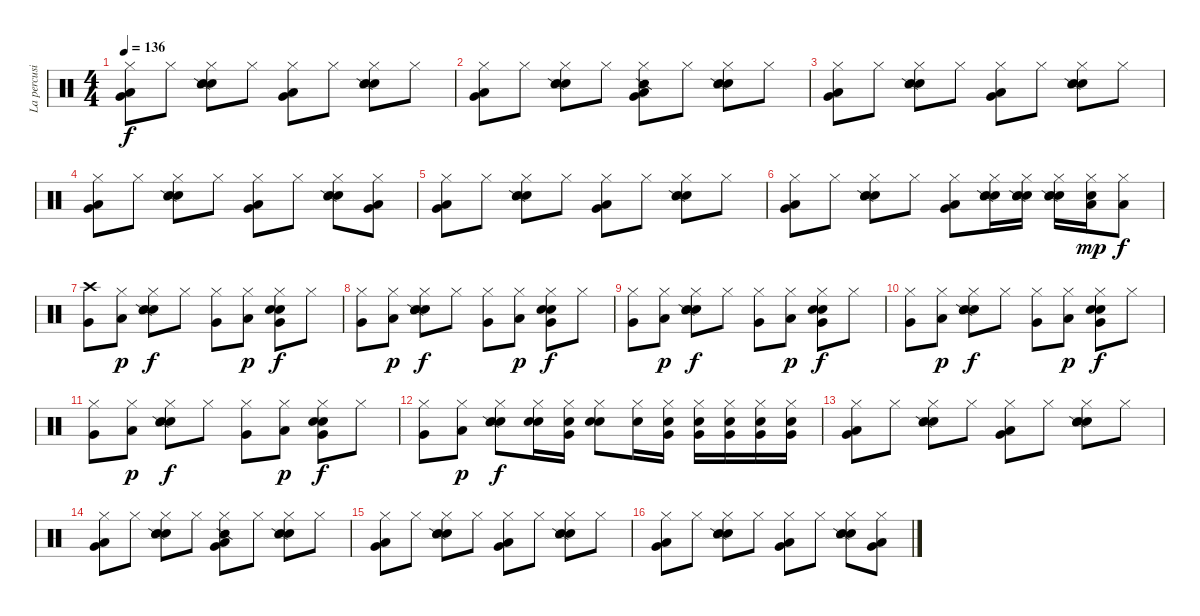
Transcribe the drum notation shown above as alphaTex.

\track ("La percusión" "La percusi") {instrument percussion}
\staff {score}
\articulation defaults
\ts (4 4)
\tempo 136
\clef neutral
\ks c
("Hi-Hat (closed)" "Low Floor Tom (hit)" "Very Low Tom (hit)").8{dy f} "Hi-Hat (closed)".8 ("Hi-Hat (closed)" "Snare (hit) 2" "Snare (hit) 2" "Snare (side stick) 2").8 "Hi-Hat (closed)".8 ("Hi-Hat (closed)" "Low Floor Tom (hit)" "Very Low Tom (hit)").8 "Hi-Hat (closed)".8 ("Hi-Hat (closed)" "Snare (hit) 2" "Snare (hit) 2" "Snare (side stick) 2").8 "Hi-Hat (closed)".8 |
("Hi-Hat (closed)" "Low Floor Tom (hit)" "Very Low Tom (hit)").8 "Hi-Hat (closed)".8 ("Hi-Hat (closed)" "Snare (hit) 2" "Snare (hit) 2" "Snare (side stick) 2").8 "Hi-Hat (closed)".8 ("Hi-Hat (closed)" "Low Floor Tom (hit)" "Very Low Tom (hit)" "Snare (side stick) 2").8 "Hi-Hat (closed)".8 ("Hi-Hat (closed)" "Snare (hit) 2" "Snare (hit) 2" "Snare (side stick) 2").8 "Hi-Hat (closed)".8 |
("Hi-Hat (closed)" "Low Floor Tom (hit)" "Very Low Tom (hit)").8 "Hi-Hat (closed)".8 ("Hi-Hat (closed)" "Snare (hit) 2" "Snare (hit) 2" "Snare (side stick) 2").8 "Hi-Hat (closed)".8 ("Hi-Hat (closed)" "Low Floor Tom (hit)" "Very Low Tom (hit)").8 "Hi-Hat (closed)".8 ("Hi-Hat (closed)" "Snare (hit) 2" "Snare (hit) 2" "Snare (side stick) 2").8 "Hi-Hat (closed)".8 |
("Hi-Hat (closed)" "Low Floor Tom (hit)" "Very Low Tom (hit)").8 "Hi-Hat (closed)".8 ("Hi-Hat (closed)" "Snare (hit) 2" "Snare (hit) 2" "Snare (side stick) 2").8 "Hi-Hat (closed)".8 ("Hi-Hat (closed)" "Low Floor Tom (hit)" "Very Low Tom (hit)").8 "Hi-Hat (closed)".8 ("Hi-Hat (closed)" "Snare (hit) 2" "Snare (hit) 2" "Snare (side stick) 2").8 ("Hi-Hat (closed)" "Low Floor Tom (hit)" "Very Low Tom (hit)").8 |
("Hi-Hat (closed)" "Low Floor Tom (hit)" "Very Low Tom (hit)").8 "Hi-Hat (closed)".8 ("Hi-Hat (closed)" "Snare (hit) 2" "Snare (hit) 2" "Snare (side stick) 2").8 "Hi-Hat (closed)".8 ("Hi-Hat (closed)" "Low Floor Tom (hit)" "Very Low Tom (hit)").8 "Hi-Hat (closed)".8 ("Hi-Hat (closed)" "Snare (hit) 2" "Snare (hit) 2" "Snare (side stick) 2").8 "Hi-Hat (closed)".8 |
("Hi-Hat (closed)" "Low Floor Tom (hit)" "Very Low Tom (hit)").8 "Hi-Hat (closed)".8 ("Hi-Hat (closed)" "Snare (hit) 2" "Snare (hit) 2" "Snare (side stick) 2").8 "Hi-Hat (closed)".8 ("Hi-Hat (closed)" "Low Floor Tom (hit)" "Very Low Tom (hit)").8 ("Hi-Hat (closed)" "Snare (hit) 2" "Snare (hit) 2" "Snare (side stick) 2").16 ("Hi-Hat (closed)" "Snare (hit) 2" "Snare (hit) 2" "Snare (side stick) 2").16 ("Hi-Hat (closed)" "Snare (hit) 2" "Snare (hit) 2" "Snare (side stick) 2").16 ("Hi-Hat (closed)" "Low Tom (hit)" "Snare (hit) 2").16{dy mp} ("Hi-Hat (closed)" "Low Floor Tom (hit)").8{dy f} |
("Crash high (hit)" "Very Low Tom (hit)").8 ("Hi-Hat (closed)" "Low Floor Tom (hit)").8{dy p} ("Hi-Hat (closed)" "Snare (hit) 2" "Snare (hit) 2" "Snare (side stick) 2").8{dy f} "Hi-Hat (closed)".8 ("Hi-Hat (closed)" "Very Low Tom (hit)").8 ("Hi-Hat (closed)" "Low Floor Tom (hit)").8{dy p} ("Hi-Hat (closed)" "Snare (hit) 2" "Snare (hit) 2" "Very Low Tom (hit)").8{dy f} "Hi-Hat (closed)".8 |
("Hi-Hat (closed)" "Very Low Tom (hit)").8 ("Hi-Hat (closed)" "Low Floor Tom (hit)").8{dy p} ("Hi-Hat (closed)" "Snare (hit) 2" "Snare (hit) 2" "Snare (side stick) 2").8{dy f} "Hi-Hat (closed)".8 ("Hi-Hat (closed)" "Very Low Tom (hit)").8 ("Hi-Hat (closed)" "Low Floor Tom (hit)").8{dy p} ("Hi-Hat (closed)" "Snare (hit) 2" "Snare (hit) 2" "Very Low Tom (hit)").8{dy f} "Hi-Hat (closed)".8 |
("Hi-Hat (closed)" "Very Low Tom (hit)").8 ("Hi-Hat (closed)" "Low Floor Tom (hit)").8{dy p} ("Hi-Hat (closed)" "Snare (hit) 2" "Snare (hit) 2" "Snare (side stick) 2").8{dy f} "Hi-Hat (closed)".8 ("Hi-Hat (closed)" "Very Low Tom (hit)").8 ("Hi-Hat (closed)" "Low Floor Tom (hit)").8{dy p} ("Hi-Hat (closed)" "Snare (hit) 2" "Snare (hit) 2" "Very Low Tom (hit)").8{dy f} "Hi-Hat (closed)".8 |
("Hi-Hat (closed)" "Very Low Tom (hit)").8 ("Hi-Hat (closed)" "Low Floor Tom (hit)").8{dy p} ("Hi-Hat (closed)" "Snare (hit) 2" "Snare (hit) 2" "Snare (side stick) 2").8{dy f} "Hi-Hat (closed)".8 ("Hi-Hat (closed)" "Very Low Tom (hit)").8 ("Hi-Hat (closed)" "Low Floor Tom (hit)").8{dy p} ("Hi-Hat (closed)" "Snare (hit) 2" "Snare (hit) 2" "Very Low Tom (hit)").8{dy f} "Hi-Hat (closed)".8 |
("Hi-Hat (closed)" "Very Low Tom (hit)").8 ("Hi-Hat (closed)" "Low Floor Tom (hit)").8{dy p} ("Hi-Hat (closed)" "Snare (hit) 2" "Snare (hit) 2" "Snare (side stick) 2").8{dy f} "Hi-Hat (closed)".8 ("Hi-Hat (closed)" "Very Low Tom (hit)").8 ("Hi-Hat (closed)" "Low Floor Tom (hit)").8{dy p} ("Hi-Hat (closed)" "Snare (hit) 2" "Snare (hit) 2" "Very Low Tom (hit)").8{dy f} "Hi-Hat (closed)".8 |
("Hi-Hat (closed)" "Very Low Tom (hit)").8 ("Hi-Hat (closed)" "Low Floor Tom (hit)").8{dy p} ("Hi-Hat (closed)" "Snare (hit) 2" "Snare (hit) 2" "Snare (side stick) 2").8{dy f} ("Hi-Hat (closed)" "Snare (hit) 2" "Snare (hit) 2").16 ("Hi-Hat (closed)" "Very Low Tom (hit)" "Snare (hit) 2").16 ("Hi-Hat (closed)" "Snare (hit) 2" "Snare (hit) 2").8 ("Hi-Hat (closed)" "Snare (hit) 2").16 ("Hi-Hat (closed)" "Very Low Tom (hit)" "Snare (hit) 2").16 ("Hi-Hat (closed)" "Very Low Tom (hit)" "Snare (hit) 2").16 ("Hi-Hat (closed)" "Very Low Tom (hit)" "Snare (hit) 2").16 ("Hi-Hat (closed)" "Very Low Tom (hit)" "Snare (hit) 2").16 ("Hi-Hat (closed)" "Very Low Tom (hit)" "Snare (hit) 2").16 |
("Hi-Hat (closed)" "Low Floor Tom (hit)" "Very Low Tom (hit)").8 "Hi-Hat (closed)".8 ("Hi-Hat (closed)" "Snare (hit) 2" "Snare (hit) 2" "Snare (side stick) 2").8 "Hi-Hat (closed)".8 ("Hi-Hat (closed)" "Low Floor Tom (hit)" "Very Low Tom (hit)").8 "Hi-Hat (closed)".8 ("Hi-Hat (closed)" "Snare (hit) 2" "Snare (hit) 2" "Snare (side stick) 2").8 "Hi-Hat (closed)".8 |
("Hi-Hat (closed)" "Low Floor Tom (hit)" "Very Low Tom (hit)").8 "Hi-Hat (closed)".8 ("Hi-Hat (closed)" "Snare (hit) 2" "Snare (hit) 2" "Snare (side stick) 2").8 "Hi-Hat (closed)".8 ("Hi-Hat (closed)" "Low Floor Tom (hit)" "Very Low Tom (hit)" "Snare (side stick) 2").8 "Hi-Hat (closed)".8 ("Hi-Hat (closed)" "Snare (hit) 2" "Snare (hit) 2" "Snare (side stick) 2").8 "Hi-Hat (closed)".8 |
("Hi-Hat (closed)" "Low Floor Tom (hit)" "Very Low Tom (hit)").8 "Hi-Hat (closed)".8 ("Hi-Hat (closed)" "Snare (hit) 2" "Snare (hit) 2" "Snare (side stick) 2").8 "Hi-Hat (closed)".8 ("Hi-Hat (closed)" "Low Floor Tom (hit)" "Very Low Tom (hit)").8 "Hi-Hat (closed)".8 ("Hi-Hat (closed)" "Snare (hit) 2" "Snare (hit) 2" "Snare (side stick) 2").8 "Hi-Hat (closed)".8 |
("Hi-Hat (closed)" "Low Floor Tom (hit)" "Very Low Tom (hit)").8 "Hi-Hat (closed)".8 ("Hi-Hat (closed)" "Snare (hit) 2" "Snare (hit) 2" "Snare (side stick) 2").8 "Hi-Hat (closed)".8 ("Hi-Hat (closed)" "Low Floor Tom (hit)" "Very Low Tom (hit)").8 "Hi-Hat (closed)".8 ("Hi-Hat (closed)" "Snare (hit) 2" "Snare (hit) 2" "Snare (side stick) 2").8 ("Hi-Hat (closed)" "Low Floor Tom (hit)" "Very Low Tom (hit)").8
